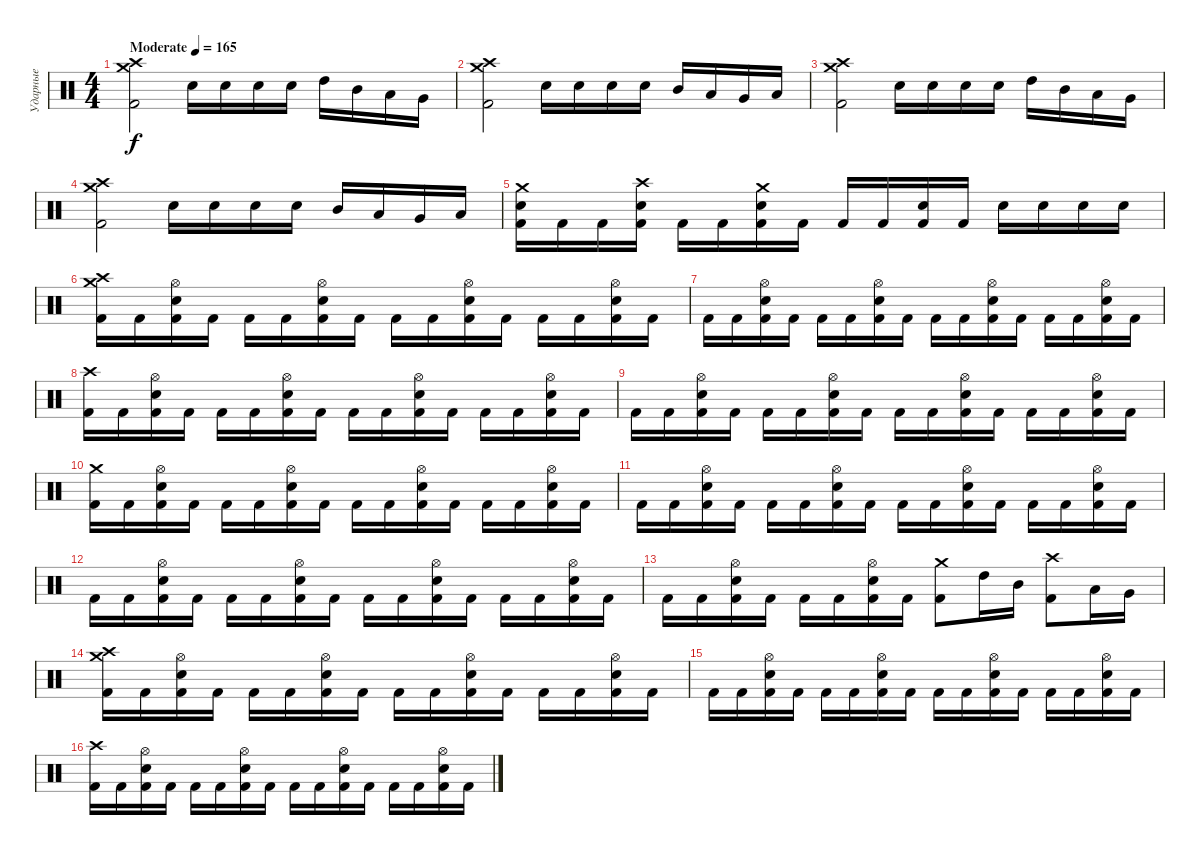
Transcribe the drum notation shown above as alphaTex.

\track ("Ударные" "Ударные") {instrument percussion}
\staff {score}
\articulation defaults
\ts (4 4)
\tempo (165 "Moderate")
\clef neutral
\ks c
("Crash medium (hit)" "Crash high (hit)" "Kick (hit) 2").2{dy f} "Electric Snare (hit)".16 "Electric Snare (hit)".16 "Electric Snare (hit)".16 "Electric Snare (hit)".16 "High Tom (hit)".16 "Mid Tom (hit)".16 "Low Tom (hit)".16 "Very Low Tom (hit)".16 |
("Crash medium (hit)" "Crash high (hit)" "Kick (hit) 2").2 "Electric Snare (hit)".16 "Electric Snare (hit)".16 "Electric Snare (hit)".16 "Electric Snare (hit)".16 "Mid Tom (hit)".16 "Low Tom (hit)".16 "Very Low Tom (hit)".16 "Low Floor Tom (hit)".16 |
("Crash medium (hit)" "Crash high (hit)" "Kick (hit) 2").2 "Electric Snare (hit)".16 "Electric Snare (hit)".16 "Electric Snare (hit)".16 "Electric Snare (hit)".16 "High Tom (hit)".16 "Mid Tom (hit)".16 "Low Tom (hit)".16 "Very Low Tom (hit)".16 |
("Crash medium (hit)" "Crash high (hit)" "Kick (hit) 2").2 "Electric Snare (hit)".16 "Electric Snare (hit)".16 "Electric Snare (hit)".16 "Electric Snare (hit)".16 "Mid Tom (hit)".16 "Low Tom (hit)".16 "Very Low Tom (hit)".16 "Low Floor Tom (hit)".16 |
("Crash medium (hit)" "Electric Snare (hit)" "Kick (hit) 2").16 "Kick (hit) 2".16 "Kick (hit) 2".16 ("Crash high (hit)" "Electric Snare (hit)" "Kick (hit) 2").16 "Kick (hit) 2".16 "Kick (hit) 2".16 ("Crash medium (hit)" "Electric Snare (hit)" "Kick (hit) 2").16 "Kick (hit) 2".16 "Kick (hit) 2".16 "Kick (hit) 2".16 ("Electric Snare (hit)" "Kick (hit) 2").16 "Kick (hit) 2".16 "Electric Snare (hit)".16 "Electric Snare (hit)".16 "Electric Snare (hit)".16 "Electric Snare (hit)".16 |
("Crash medium (hit)" "Crash high (hit)" "Kick (hit) 2").16 "Kick (hit) 2".16 ("Hi-Hat (open)" "Electric Snare (hit)" "Kick (hit) 2").16 "Kick (hit) 2".16 "Kick (hit) 2".16 "Kick (hit) 2".16 ("Hi-Hat (open)" "Electric Snare (hit)" "Kick (hit) 2").16 "Kick (hit) 2".16 "Kick (hit) 2".16 "Kick (hit) 2".16 ("Hi-Hat (open)" "Electric Snare (hit)" "Kick (hit) 2").16 "Kick (hit) 2".16 "Kick (hit) 2".16 "Kick (hit) 2".16 ("Hi-Hat (open)" "Electric Snare (hit)" "Kick (hit) 2").16 "Kick (hit) 2".16 |
"Kick (hit) 2".16 "Kick (hit) 2".16 ("Hi-Hat (open)" "Electric Snare (hit)" "Kick (hit) 2").16 "Kick (hit) 2".16 "Kick (hit) 2".16 "Kick (hit) 2".16 ("Hi-Hat (open)" "Electric Snare (hit)" "Kick (hit) 2").16 "Kick (hit) 2".16 "Kick (hit) 2".16 "Kick (hit) 2".16 ("Hi-Hat (open)" "Electric Snare (hit)" "Kick (hit) 2").16 "Kick (hit) 2".16 "Kick (hit) 2".16 "Kick (hit) 2".16 ("Hi-Hat (open)" "Electric Snare (hit)" "Kick (hit) 2").16 "Kick (hit) 2".16 |
("Crash high (hit)" "Kick (hit) 2").16 "Kick (hit) 2".16 ("Hi-Hat (open)" "Electric Snare (hit)" "Kick (hit) 2").16 "Kick (hit) 2".16 "Kick (hit) 2".16 "Kick (hit) 2".16 ("Hi-Hat (open)" "Electric Snare (hit)" "Kick (hit) 2").16 "Kick (hit) 2".16 "Kick (hit) 2".16 "Kick (hit) 2".16 ("Hi-Hat (open)" "Electric Snare (hit)" "Kick (hit) 2").16 "Kick (hit) 2".16 "Kick (hit) 2".16 "Kick (hit) 2".16 ("Hi-Hat (open)" "Electric Snare (hit)" "Kick (hit) 2").16 "Kick (hit) 2".16 |
"Kick (hit) 2".16 "Kick (hit) 2".16 ("Hi-Hat (open)" "Electric Snare (hit)" "Kick (hit) 2").16 "Kick (hit) 2".16 "Kick (hit) 2".16 "Kick (hit) 2".16 ("Hi-Hat (open)" "Electric Snare (hit)" "Kick (hit) 2").16 "Kick (hit) 2".16 "Kick (hit) 2".16 "Kick (hit) 2".16 ("Hi-Hat (open)" "Electric Snare (hit)" "Kick (hit) 2").16 "Kick (hit) 2".16 "Kick (hit) 2".16 "Kick (hit) 2".16 ("Hi-Hat (open)" "Electric Snare (hit)" "Kick (hit) 2").16 "Kick (hit) 2".16 |
("Crash medium (hit)" "Kick (hit) 2").16 "Kick (hit) 2".16 ("Hi-Hat (open)" "Electric Snare (hit)" "Kick (hit) 2").16 "Kick (hit) 2".16 "Kick (hit) 2".16 "Kick (hit) 2".16 ("Hi-Hat (open)" "Electric Snare (hit)" "Kick (hit) 2").16 "Kick (hit) 2".16 "Kick (hit) 2".16 "Kick (hit) 2".16 ("Hi-Hat (open)" "Electric Snare (hit)" "Kick (hit) 2").16 "Kick (hit) 2".16 "Kick (hit) 2".16 "Kick (hit) 2".16 ("Hi-Hat (open)" "Electric Snare (hit)" "Kick (hit) 2").16 "Kick (hit) 2".16 |
"Kick (hit) 2".16 "Kick (hit) 2".16 ("Hi-Hat (open)" "Electric Snare (hit)" "Kick (hit) 2").16 "Kick (hit) 2".16 "Kick (hit) 2".16 "Kick (hit) 2".16 ("Hi-Hat (open)" "Electric Snare (hit)" "Kick (hit) 2").16 "Kick (hit) 2".16 "Kick (hit) 2".16 "Kick (hit) 2".16 ("Hi-Hat (open)" "Electric Snare (hit)" "Kick (hit) 2").16 "Kick (hit) 2".16 "Kick (hit) 2".16 "Kick (hit) 2".16 ("Hi-Hat (open)" "Electric Snare (hit)" "Kick (hit) 2").16 "Kick (hit) 2".16 |
"Kick (hit) 2".16 "Kick (hit) 2".16 ("Hi-Hat (open)" "Electric Snare (hit)" "Kick (hit) 2").16 "Kick (hit) 2".16 "Kick (hit) 2".16 "Kick (hit) 2".16 ("Hi-Hat (open)" "Electric Snare (hit)" "Kick (hit) 2").16 "Kick (hit) 2".16 "Kick (hit) 2".16 "Kick (hit) 2".16 ("Hi-Hat (open)" "Electric Snare (hit)" "Kick (hit) 2").16 "Kick (hit) 2".16 "Kick (hit) 2".16 "Kick (hit) 2".16 ("Hi-Hat (open)" "Electric Snare (hit)" "Kick (hit) 2").16 "Kick (hit) 2".16 |
"Kick (hit) 2".16 "Kick (hit) 2".16 ("Hi-Hat (open)" "Electric Snare (hit)" "Kick (hit) 2").16 "Kick (hit) 2".16 "Kick (hit) 2".16 "Kick (hit) 2".16 ("Hi-Hat (open)" "Electric Snare (hit)" "Kick (hit) 2").16 "Kick (hit) 2".16 ("Crash medium (hit)" "Kick (hit) 2").8 "High Tom (hit)".16 "Mid Tom (hit)".16 ("Crash high (hit)" "Kick (hit) 2").8 "Low Tom (hit)".16 "Very Low Tom (hit)".16 |
("Crash medium (hit)" "Crash high (hit)" "Kick (hit) 2").16 "Kick (hit) 2".16 ("Hi-Hat (open)" "Electric Snare (hit)" "Kick (hit) 2").16 "Kick (hit) 2".16 "Kick (hit) 2".16 "Kick (hit) 2".16 ("Hi-Hat (open)" "Electric Snare (hit)" "Kick (hit) 2").16 "Kick (hit) 2".16 "Kick (hit) 2".16 "Kick (hit) 2".16 ("Hi-Hat (open)" "Electric Snare (hit)" "Kick (hit) 2").16 "Kick (hit) 2".16 "Kick (hit) 2".16 "Kick (hit) 2".16 ("Hi-Hat (open)" "Electric Snare (hit)" "Kick (hit) 2").16 "Kick (hit) 2".16 |
"Kick (hit) 2".16 "Kick (hit) 2".16 ("Hi-Hat (open)" "Electric Snare (hit)" "Kick (hit) 2").16 "Kick (hit) 2".16 "Kick (hit) 2".16 "Kick (hit) 2".16 ("Hi-Hat (open)" "Electric Snare (hit)" "Kick (hit) 2").16 "Kick (hit) 2".16 "Kick (hit) 2".16 "Kick (hit) 2".16 ("Hi-Hat (open)" "Electric Snare (hit)" "Kick (hit) 2").16 "Kick (hit) 2".16 "Kick (hit) 2".16 "Kick (hit) 2".16 ("Hi-Hat (open)" "Electric Snare (hit)" "Kick (hit) 2").16 "Kick (hit) 2".16 |
("Crash high (hit)" "Kick (hit) 2").16 "Kick (hit) 2".16 ("Hi-Hat (open)" "Electric Snare (hit)" "Kick (hit) 2").16 "Kick (hit) 2".16 "Kick (hit) 2".16 "Kick (hit) 2".16 ("Hi-Hat (open)" "Electric Snare (hit)" "Kick (hit) 2").16 "Kick (hit) 2".16 "Kick (hit) 2".16 "Kick (hit) 2".16 ("Hi-Hat (open)" "Electric Snare (hit)" "Kick (hit) 2").16 "Kick (hit) 2".16 "Kick (hit) 2".16 "Kick (hit) 2".16 ("Hi-Hat (open)" "Electric Snare (hit)" "Kick (hit) 2").16 "Kick (hit) 2".16
